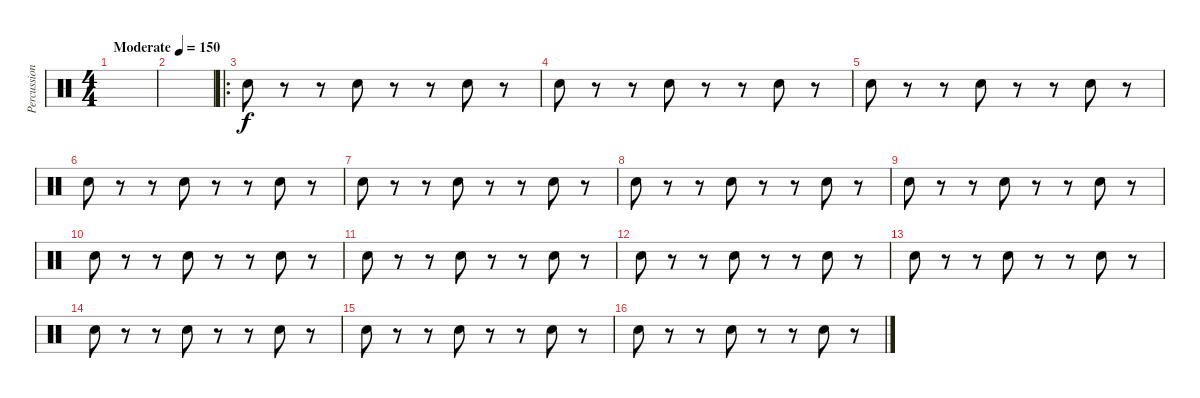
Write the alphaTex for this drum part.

\track ("Percussion" "Percussion") {instrument percussion bank 2}
\staff {score}
\articulation defaults
\ts (4 4)
\tempo (150 "Moderate")
\clef neutral
\ks c
|
|
\ro "Snare (hit) 2".8
r.8 r.8 "Snare (hit) 2".8 r.8 r.8 "Snare (hit) 2".8 r.8 |
"Snare (hit) 2".8 r.8 r.8 "Snare (hit) 2".8 r.8 r.8 "Snare (hit) 2".8 r.8 |
"Snare (hit) 2".8 r.8 r.8 "Snare (hit) 2".8 r.8 r.8 "Snare (hit) 2".8 r.8 |
"Snare (hit) 2".8 r.8 r.8 "Snare (hit) 2".8 r.8 r.8 "Snare (hit) 2".8 r.8 |
"Snare (hit) 2".8 r.8 r.8 "Snare (hit) 2".8 r.8 r.8 "Snare (hit) 2".8 r.8 |
"Snare (hit) 2".8 r.8 r.8 "Snare (hit) 2".8 r.8 r.8 "Snare (hit) 2".8 r.8 |
"Snare (hit) 2".8 r.8 r.8 "Snare (hit) 2".8 r.8 r.8 "Snare (hit) 2".8 r.8 |
"Snare (hit) 2".8 r.8 r.8 "Snare (hit) 2".8 r.8 r.8 "Snare (hit) 2".8 r.8 |
"Snare (hit) 2".8 r.8 r.8 "Snare (hit) 2".8 r.8 r.8 "Snare (hit) 2".8 r.8 |
"Snare (hit) 2".8 r.8 r.8 "Snare (hit) 2".8 r.8 r.8 "Snare (hit) 2".8 r.8 |
"Snare (hit) 2".8 r.8 r.8 "Snare (hit) 2".8 r.8 r.8 "Snare (hit) 2".8 r.8 |
"Snare (hit) 2".8 r.8 r.8 "Snare (hit) 2".8 r.8 r.8 "Snare (hit) 2".8 r.8 |
"Snare (hit) 2".8 r.8 r.8 "Snare (hit) 2".8 r.8 r.8 "Snare (hit) 2".8 r.8 |
"Snare (hit) 2".8 r.8 r.8 "Snare (hit) 2".8 r.8 r.8 "Snare (hit) 2".8 r.8
